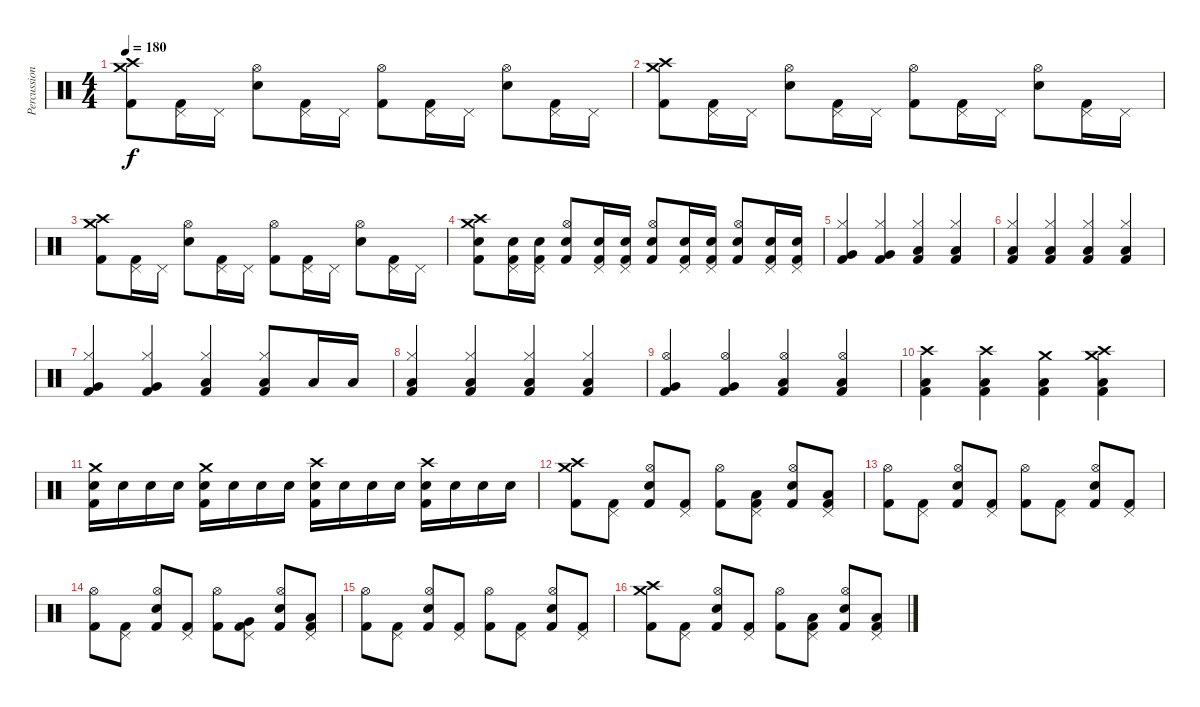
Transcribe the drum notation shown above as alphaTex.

\track ("Percussion" "Percussion") {instrument percussion}
\staff {score}
\articulation defaults
\ts (4 4)
\tempo 180
\clef neutral
\ks c
("Crash medium (hit)" "Crash high (hit)" "Kick (hit) 2").8{dy f} ("Pedal Hi-Hat (hit)" "Kick (hit) 2").16 "Pedal Hi-Hat (hit)".16 ("Hi-Hat (open)" "Electric Snare (hit)").8 ("Pedal Hi-Hat (hit)" "Kick (hit) 2").16 "Pedal Hi-Hat (hit)".16 ("Hi-Hat (open)" "Kick (hit) 2").8 ("Pedal Hi-Hat (hit)" "Kick (hit) 2").16 "Pedal Hi-Hat (hit)".16 ("Hi-Hat (open)" "Electric Snare (hit)").8 ("Pedal Hi-Hat (hit)" "Kick (hit) 2").16 "Pedal Hi-Hat (hit)".16 |
("Crash medium (hit)" "Crash high (hit)" "Kick (hit) 2").8 ("Pedal Hi-Hat (hit)" "Kick (hit) 2").16 "Pedal Hi-Hat (hit)".16 ("Hi-Hat (open)" "Electric Snare (hit)").8 ("Pedal Hi-Hat (hit)" "Kick (hit) 2").16 "Pedal Hi-Hat (hit)".16 ("Hi-Hat (open)" "Kick (hit) 2").8 ("Pedal Hi-Hat (hit)" "Kick (hit) 2").16 "Pedal Hi-Hat (hit)".16 ("Hi-Hat (open)" "Electric Snare (hit)").8 ("Pedal Hi-Hat (hit)" "Kick (hit) 2").16 "Pedal Hi-Hat (hit)".16 |
("Crash medium (hit)" "Crash high (hit)" "Kick (hit) 2").8 ("Pedal Hi-Hat (hit)" "Kick (hit) 2").16 "Pedal Hi-Hat (hit)".16 ("Hi-Hat (open)" "Electric Snare (hit)").8 ("Pedal Hi-Hat (hit)" "Kick (hit) 2").16 "Pedal Hi-Hat (hit)".16 ("Hi-Hat (open)" "Kick (hit) 2").8 ("Pedal Hi-Hat (hit)" "Kick (hit) 2").16 "Pedal Hi-Hat (hit)".16 ("Hi-Hat (open)" "Electric Snare (hit)").8 ("Pedal Hi-Hat (hit)" "Kick (hit) 2").16 "Pedal Hi-Hat (hit)".16 |
("Crash medium (hit)" "Crash high (hit)" "Electric Snare (hit)" "Kick (hit) 2").8 ("Pedal Hi-Hat (hit)" "Electric Snare (hit)" "Kick (hit) 2").16 ("Pedal Hi-Hat (hit)" "Electric Snare (hit)" "Kick (hit) 2").16 ("Hi-Hat (open)" "Electric Snare (hit)" "Kick (hit) 2").8 ("Pedal Hi-Hat (hit)" "Electric Snare (hit)" "Kick (hit) 2").16 ("Pedal Hi-Hat (hit)" "Electric Snare (hit)" "Kick (hit) 2").16 ("Hi-Hat (open)" "Electric Snare (hit)" "Kick (hit) 2").8 ("Pedal Hi-Hat (hit)" "Electric Snare (hit)" "Kick (hit) 2").16 ("Pedal Hi-Hat (hit)" "Electric Snare (hit)" "Kick (hit) 2").16 ("Hi-Hat (open)" "Electric Snare (hit)" "Kick (hit) 2").8 ("Pedal Hi-Hat (hit)" "Electric Snare (hit)" "Kick (hit) 2").16 ("Pedal Hi-Hat (hit)" "Electric Snare (hit)" "Kick (hit) 2").16 |
("Hi-Hat (closed)" "Very Low Tom (hit)" "Kick (hit) 2").4 ("Hi-Hat (closed)" "Very Low Tom (hit)" "Kick (hit) 2").4 ("Hi-Hat (closed)" "Low Tom (hit)" "Kick (hit) 2").4 ("Hi-Hat (closed)" "Low Tom (hit)" "Kick (hit) 2").4 |
("Hi-Hat (closed)" "Low Floor Tom (hit)" "Kick (hit) 2").4 ("Hi-Hat (closed)" "Low Floor Tom (hit)" "Kick (hit) 2").4 ("Hi-Hat (closed)" "Low Floor Tom (hit)" "Kick (hit) 2").4 ("Hi-Hat (closed)" "Low Floor Tom (hit)" "Kick (hit) 2").4 |
("Hi-Hat (closed)" "Very Low Tom (hit)" "Kick (hit) 2").4 ("Hi-Hat (closed)" "Very Low Tom (hit)" "Kick (hit) 2").4 ("Hi-Hat (closed)" "Low Tom (hit)" "Kick (hit) 2").4 ("Hi-Hat (closed)" "Low Tom (hit)" "Kick (hit) 2").8 "Low Tom (hit)".16 "Low Tom (hit)".16 |
("Hi-Hat (closed)" "Low Floor Tom (hit)" "Kick (hit) 2").4 ("Hi-Hat (closed)" "Low Floor Tom (hit)" "Kick (hit) 2").4 ("Hi-Hat (closed)" "Low Floor Tom (hit)" "Kick (hit) 2").4 ("Hi-Hat (closed)" "Low Floor Tom (hit)" "Kick (hit) 2").4 |
("Hi-Hat (open)" "Very Low Tom (hit)" "Kick (hit) 2").4 ("Hi-Hat (open)" "Very Low Tom (hit)" "Kick (hit) 2").4 ("Hi-Hat (open)" "Low Tom (hit)" "Kick (hit) 2").4 ("Hi-Hat (open)" "Low Tom (hit)" "Kick (hit) 2").4 |
("Crash high (hit)" "Low Floor Tom (hit)" "Kick (hit) 2").4 ("Crash high (hit)" "Low Floor Tom (hit)" "Kick (hit) 2").4 ("Crash medium (hit)" "Low Floor Tom (hit)" "Kick (hit) 2").4 ("Crash medium (hit)" "Crash high (hit)" "Low Floor Tom (hit)" "Kick (hit) 2").4 |
("Crash medium (hit)" "Electric Snare (hit)" "Kick (hit) 2").16 "Electric Snare (hit)".16 "Electric Snare (hit)".16 "Electric Snare (hit)".16 ("Crash medium (hit)" "Electric Snare (hit)" "Kick (hit) 2").16 "Electric Snare (hit)".16 "Electric Snare (hit)".16 "Electric Snare (hit)".16 ("Crash high (hit)" "Electric Snare (hit)" "Kick (hit) 2").16 "Electric Snare (hit)".16 "Electric Snare (hit)".16 "Electric Snare (hit)".16 ("Crash high (hit)" "Electric Snare (hit)" "Kick (hit) 2").16 "Electric Snare (hit)".16 "Electric Snare (hit)".16 "Electric Snare (hit)".16 |
("Crash high (hit)" "Crash medium (hit)" "Kick (hit) 2").8 ("Pedal Hi-Hat (hit)" "Kick (hit) 2").8 ("Hi-Hat (open)" "Electric Snare (hit)" "Kick (hit) 2").8 ("Pedal Hi-Hat (hit)" "Kick (hit) 2").8 ("Hi-Hat (open)" "Kick (hit) 2").8 ("Pedal Hi-Hat (hit)" "Low Tom (hit)" "Kick (hit) 2").8 ("Hi-Hat (open)" "Electric Snare (hit)" "Kick (hit) 2").8 ("Pedal Hi-Hat (hit)" "Low Floor Tom (hit)" "Kick (hit) 2").8 |
("Hi-Hat (open)" "Kick (hit) 2").8 ("Pedal Hi-Hat (hit)" "Kick (hit) 2").8 ("Hi-Hat (open)" "Electric Snare (hit)" "Kick (hit) 2").8 ("Pedal Hi-Hat (hit)" "Kick (hit) 2").8 ("Hi-Hat (open)" "Kick (hit) 2").8 ("Pedal Hi-Hat (hit)" "Kick (hit) 2").8 ("Hi-Hat (open)" "Electric Snare (hit)" "Kick (hit) 2").8 ("Pedal Hi-Hat (hit)" "Kick (hit) 2").8 |
("Hi-Hat (open)" "Kick (hit) 2").8 ("Pedal Hi-Hat (hit)" "Kick (hit) 2").8 ("Hi-Hat (open)" "Electric Snare (hit)" "Kick (hit) 2").8 ("Pedal Hi-Hat (hit)" "Kick (hit) 2").8 ("Hi-Hat (open)" "Kick (hit) 2").8 ("Pedal Hi-Hat (hit)" "Very Low Tom (hit)" "Kick (hit) 2").8 ("Hi-Hat (open)" "Electric Snare (hit)" "Kick (hit) 2").8 ("Pedal Hi-Hat (hit)" "Low Floor Tom (hit)" "Kick (hit) 2").8 |
("Hi-Hat (open)" "Kick (hit) 2").8 ("Pedal Hi-Hat (hit)" "Kick (hit) 2").8 ("Hi-Hat (open)" "Electric Snare (hit)" "Kick (hit) 2").8 ("Pedal Hi-Hat (hit)" "Kick (hit) 2").8 ("Hi-Hat (open)" "Kick (hit) 2").8 ("Pedal Hi-Hat (hit)" "Kick (hit) 2").8 ("Hi-Hat (open)" "Electric Snare (hit)" "Kick (hit) 2").8 ("Pedal Hi-Hat (hit)" "Kick (hit) 2").8 |
("Crash high (hit)" "Crash medium (hit)" "Kick (hit) 2").8 ("Pedal Hi-Hat (hit)" "Kick (hit) 2").8 ("Hi-Hat (open)" "Electric Snare (hit)" "Kick (hit) 2").8 ("Pedal Hi-Hat (hit)" "Kick (hit) 2").8 ("Hi-Hat (open)" "Kick (hit) 2").8 ("Pedal Hi-Hat (hit)" "Low Tom (hit)" "Kick (hit) 2").8 ("Hi-Hat (open)" "Electric Snare (hit)" "Kick (hit) 2").8 ("Pedal Hi-Hat (hit)" "Low Floor Tom (hit)" "Kick (hit) 2").8
